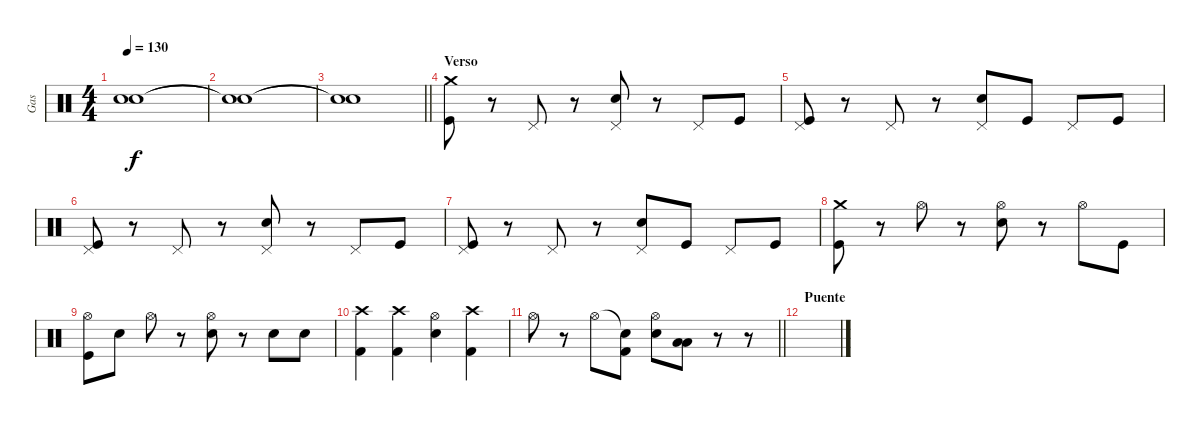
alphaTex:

\track ("Gas" "Gas") {instrument percussion}
\staff {score}
\articulation defaults
\ts (4 4)
\tempo 130
\clef neutral
\ks c
("Snare (hit)"{t} "Snare (hit)"{t}).1{dy f} |
("Snare (hit)"{t} "Snare (hit)"{t}).1 |
\barLineRight lightlight
("Snare (hit)"{t} "Snare (hit)"{t}).1 |
\section ("" "Verso")
("Kick (hit)" "Crash medium (hit)").8 r.8 "Pedal Hi-Hat (hit)".8 r.8 ("Pedal Hi-Hat (hit)" "Electric Snare (hit)").8 r.8 "Pedal Hi-Hat (hit)".8 "Kick (hit)".8 |
("Pedal Hi-Hat (hit)" "Kick (hit)").8 r.8 "Pedal Hi-Hat (hit)".8 r.8 ("Pedal Hi-Hat (hit)" "Electric Snare (hit)").8 "Kick (hit)".8 "Pedal Hi-Hat (hit)".8 "Kick (hit)".8 |
("Pedal Hi-Hat (hit)" "Kick (hit)").8 r.8 "Pedal Hi-Hat (hit)".8 r.8 ("Pedal Hi-Hat (hit)" "Electric Snare (hit)").8 r.8 "Pedal Hi-Hat (hit)".8 "Kick (hit)".8 |
("Pedal Hi-Hat (hit)" "Kick (hit)").8 r.8 "Pedal Hi-Hat (hit)".8 r.8 ("Pedal Hi-Hat (hit)" "Electric Snare (hit)").8 "Kick (hit)".8 "Pedal Hi-Hat (hit)".8 "Kick (hit)".8 |
("Kick (hit)" "Crash medium (hit)").8 r.8 "Hi-Hat (open)".8 r.8 ("Hi-Hat (open)" "Electric Snare (hit)").8 r.8 "Hi-Hat (open)".8 "Kick (hit)".8 |
("Hi-Hat (open)" "Kick (hit)").8 "Snare (hit)".8 "Hi-Hat (open)".8 r.8 ("Hi-Hat (open)" "Electric Snare (hit)").8 r.8 "Electric Snare (hit)".8 "Electric Snare (hit)".8 |
("Crash high (hit)" "Kick (hit) 2").4 ("Crash high (hit)" "Kick (hit) 2").4 ("Hi-Hat (open)" "Electric Snare (hit)").4 ("Crash high (hit)" "Kick (hit) 2").4 |
\barLineRight lightlight "Hi-Hat (open)".8
r.8 "Hi-Hat (open)".8 ("Snare (hit)"{t} "Kick (hit) 2").8 ("Hi-Hat (open)" "Electric Snare (hit)").8 ("Low Tom (hit)" "Low Tom (hit)").8{bd 60} r.8 r.8 |
\section ("" "Puente")
